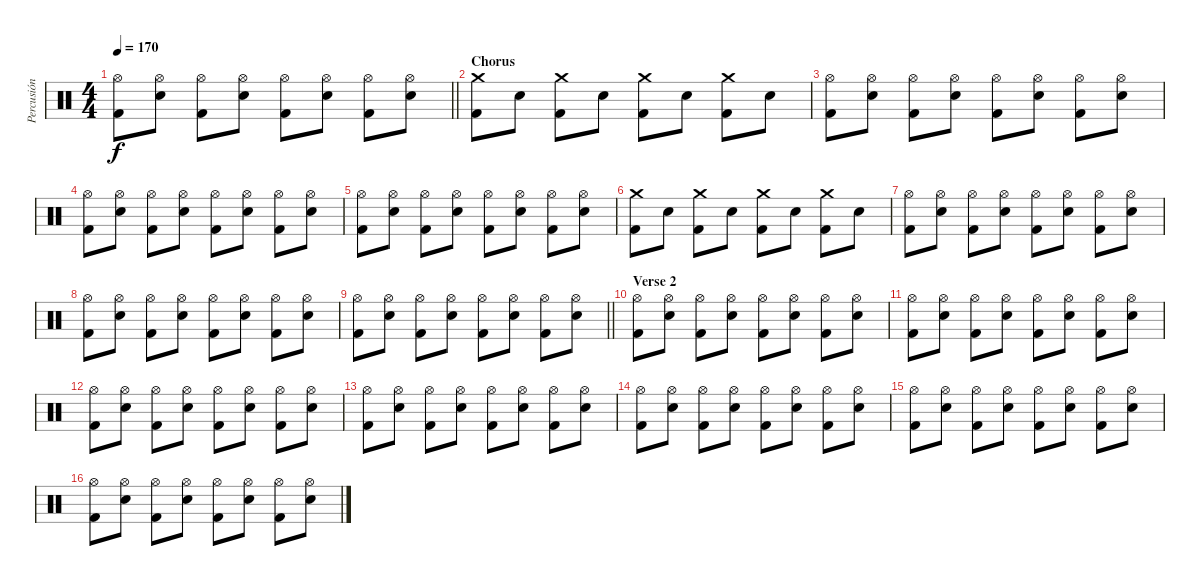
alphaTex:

\track ("Percusión" "Percusión") {instrument percussion}
\staff {score}
\articulation defaults
\ts (4 4)
\tempo 170
\clef neutral
\barLineRight lightlight
\ks c
("Hi-Hat (open)" "Kick (hit) 2").8{dy f} ("Hi-Hat (open)" "Snare (hit) 2").8 ("Hi-Hat (open)" "Kick (hit) 2").8 ("Hi-Hat (open)" "Snare (hit) 2").8 ("Hi-Hat (open)" "Kick (hit) 2").8 ("Hi-Hat (open)" "Snare (hit) 2").8 ("Hi-Hat (open)" "Kick (hit) 2").8 ("Hi-Hat (open)" "Snare (hit) 2").8 |
\section ("" "Chorus")
("Crash medium (hit)" "Kick (hit) 2").8 "Snare (hit) 2".8 ("Crash medium (hit)" "Kick (hit) 2").8 "Snare (hit) 2".8 ("Crash medium (hit)" "Kick (hit) 2").8 "Snare (hit) 2".8 ("Crash medium (hit)" "Kick (hit) 2").8 "Snare (hit) 2".8 |
("Hi-Hat (open)" "Kick (hit) 2").8 ("Hi-Hat (open)" "Snare (hit) 2").8 ("Hi-Hat (open)" "Kick (hit) 2").8 ("Hi-Hat (open)" "Snare (hit) 2").8 ("Hi-Hat (open)" "Kick (hit) 2").8 ("Hi-Hat (open)" "Snare (hit) 2").8 ("Hi-Hat (open)" "Kick (hit) 2").8 ("Hi-Hat (open)" "Snare (hit) 2").8 |
("Hi-Hat (open)" "Kick (hit) 2").8 ("Hi-Hat (open)" "Snare (hit) 2").8 ("Hi-Hat (open)" "Kick (hit) 2").8 ("Hi-Hat (open)" "Snare (hit) 2").8 ("Hi-Hat (open)" "Kick (hit) 2").8 ("Hi-Hat (open)" "Snare (hit) 2").8 ("Hi-Hat (open)" "Kick (hit) 2").8 ("Hi-Hat (open)" "Snare (hit) 2").8 |
("Hi-Hat (open)" "Kick (hit) 2").8 ("Hi-Hat (open)" "Snare (hit) 2").8 ("Hi-Hat (open)" "Kick (hit) 2").8 ("Hi-Hat (open)" "Snare (hit) 2").8 ("Hi-Hat (open)" "Kick (hit) 2").8 ("Hi-Hat (open)" "Snare (hit) 2").8 ("Hi-Hat (open)" "Kick (hit) 2").8 ("Hi-Hat (open)" "Snare (hit) 2").8 |
("Crash medium (hit)" "Kick (hit) 2").8 "Snare (hit) 2".8 ("Crash medium (hit)" "Kick (hit) 2").8 "Snare (hit) 2".8 ("Crash medium (hit)" "Kick (hit) 2").8 "Snare (hit) 2".8 ("Crash medium (hit)" "Kick (hit) 2").8 "Snare (hit) 2".8 |
("Hi-Hat (open)" "Kick (hit) 2").8 ("Hi-Hat (open)" "Snare (hit) 2").8 ("Hi-Hat (open)" "Kick (hit) 2").8 ("Hi-Hat (open)" "Snare (hit) 2").8 ("Hi-Hat (open)" "Kick (hit) 2").8 ("Hi-Hat (open)" "Snare (hit) 2").8 ("Hi-Hat (open)" "Kick (hit) 2").8 ("Hi-Hat (open)" "Snare (hit) 2").8 |
("Hi-Hat (open)" "Kick (hit) 2").8 ("Hi-Hat (open)" "Snare (hit) 2").8 ("Hi-Hat (open)" "Kick (hit) 2").8 ("Hi-Hat (open)" "Snare (hit) 2").8 ("Hi-Hat (open)" "Kick (hit) 2").8 ("Hi-Hat (open)" "Snare (hit) 2").8 ("Hi-Hat (open)" "Kick (hit) 2").8 ("Hi-Hat (open)" "Snare (hit) 2").8 |
\barLineRight lightlight
("Hi-Hat (open)" "Kick (hit) 2").8 ("Hi-Hat (open)" "Snare (hit) 2").8 ("Hi-Hat (open)" "Kick (hit) 2").8 ("Hi-Hat (open)" "Snare (hit) 2").8 ("Hi-Hat (open)" "Kick (hit) 2").8 ("Hi-Hat (open)" "Snare (hit) 2").8 ("Hi-Hat (open)" "Kick (hit) 2").8 ("Hi-Hat (open)" "Snare (hit) 2").8 |
\section ("" "Verse 2")
("Hi-Hat (open)" "Kick (hit) 2").8 ("Hi-Hat (open)" "Snare (hit) 2").8 ("Hi-Hat (open)" "Kick (hit) 2").8 ("Hi-Hat (open)" "Snare (hit) 2").8 ("Hi-Hat (open)" "Kick (hit) 2").8 ("Hi-Hat (open)" "Snare (hit) 2").8 ("Hi-Hat (open)" "Kick (hit) 2").8 ("Hi-Hat (open)" "Snare (hit) 2").8 |
("Hi-Hat (open)" "Kick (hit) 2").8 ("Hi-Hat (open)" "Snare (hit) 2").8 ("Hi-Hat (open)" "Kick (hit) 2").8 ("Hi-Hat (open)" "Snare (hit) 2").8 ("Hi-Hat (open)" "Kick (hit) 2").8 ("Hi-Hat (open)" "Snare (hit) 2").8 ("Hi-Hat (open)" "Kick (hit) 2").8 ("Hi-Hat (open)" "Snare (hit) 2").8 |
("Hi-Hat (open)" "Kick (hit) 2").8 ("Hi-Hat (open)" "Snare (hit) 2").8 ("Hi-Hat (open)" "Kick (hit) 2").8 ("Hi-Hat (open)" "Snare (hit) 2").8 ("Hi-Hat (open)" "Kick (hit) 2").8 ("Hi-Hat (open)" "Snare (hit) 2").8 ("Hi-Hat (open)" "Kick (hit) 2").8 ("Hi-Hat (open)" "Snare (hit) 2").8 |
("Hi-Hat (open)" "Kick (hit) 2").8 ("Hi-Hat (open)" "Snare (hit) 2").8 ("Hi-Hat (open)" "Kick (hit) 2").8 ("Hi-Hat (open)" "Snare (hit) 2").8 ("Hi-Hat (open)" "Kick (hit) 2").8 ("Hi-Hat (open)" "Snare (hit) 2").8 ("Hi-Hat (open)" "Kick (hit) 2").8 ("Hi-Hat (open)" "Snare (hit) 2").8 |
("Hi-Hat (open)" "Kick (hit) 2").8 ("Hi-Hat (open)" "Snare (hit) 2").8 ("Hi-Hat (open)" "Kick (hit) 2").8 ("Hi-Hat (open)" "Snare (hit) 2").8 ("Hi-Hat (open)" "Kick (hit) 2").8 ("Hi-Hat (open)" "Snare (hit) 2").8 ("Hi-Hat (open)" "Kick (hit) 2").8 ("Hi-Hat (open)" "Snare (hit) 2").8 |
("Hi-Hat (open)" "Kick (hit) 2").8 ("Hi-Hat (open)" "Snare (hit) 2").8 ("Hi-Hat (open)" "Kick (hit) 2").8 ("Hi-Hat (open)" "Snare (hit) 2").8 ("Hi-Hat (open)" "Kick (hit) 2").8 ("Hi-Hat (open)" "Snare (hit) 2").8 ("Hi-Hat (open)" "Kick (hit) 2").8 ("Hi-Hat (open)" "Snare (hit) 2").8 |
("Hi-Hat (open)" "Kick (hit) 2").8 ("Hi-Hat (open)" "Snare (hit) 2").8 ("Hi-Hat (open)" "Kick (hit) 2").8 ("Hi-Hat (open)" "Snare (hit) 2").8 ("Hi-Hat (open)" "Kick (hit) 2").8 ("Hi-Hat (open)" "Snare (hit) 2").8 ("Hi-Hat (open)" "Kick (hit) 2").8 ("Hi-Hat (open)" "Snare (hit) 2").8
